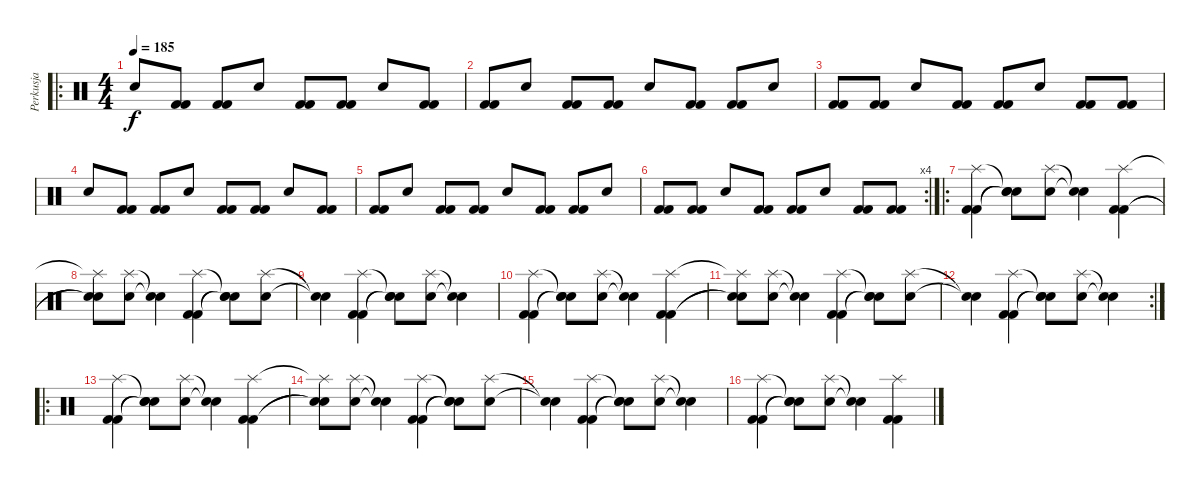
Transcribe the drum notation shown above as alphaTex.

\track ("Perkusja" "Perkusja") {instrument percussion}
\staff {score}
\articulation defaults
\ro
\ts (4 4)
\tempo 185
\clef neutral
\ks c "Snare (hit) 2".8{dy f}
("Kick (hit) 2" "Kick (hit) 2").8 ("Kick (hit) 2" "Kick (hit) 2").8 "Snare (hit) 2".8 ("Kick (hit) 2" "Kick (hit) 2").8 ("Kick (hit) 2" "Kick (hit) 2").8 "Snare (hit) 2".8 ("Kick (hit) 2" "Kick (hit) 2").8 |
("Kick (hit) 2" "Kick (hit) 2").8 "Snare (hit) 2".8 ("Kick (hit) 2" "Kick (hit) 2").8 ("Kick (hit) 2" "Kick (hit) 2").8 "Snare (hit) 2".8 ("Kick (hit) 2" "Kick (hit) 2").8 ("Kick (hit) 2" "Kick (hit) 2").8 "Snare (hit) 2".8 |
("Kick (hit) 2" "Kick (hit) 2").8 ("Kick (hit) 2" "Kick (hit) 2").8 "Snare (hit) 2".8 ("Kick (hit) 2" "Kick (hit) 2").8 ("Kick (hit) 2" "Kick (hit) 2").8 "Snare (hit) 2".8 ("Kick (hit) 2" "Kick (hit) 2").8 ("Kick (hit) 2" "Kick (hit) 2").8 |
"Snare (hit) 2".8 ("Kick (hit) 2" "Kick (hit) 2").8 ("Kick (hit) 2" "Kick (hit) 2").8 "Snare (hit) 2".8 ("Kick (hit) 2" "Kick (hit) 2").8 ("Kick (hit) 2" "Kick (hit) 2").8 "Snare (hit) 2".8 ("Kick (hit) 2" "Kick (hit) 2").8 |
("Kick (hit) 2" "Kick (hit) 2").8 "Snare (hit) 2".8 ("Kick (hit) 2" "Kick (hit) 2").8 ("Kick (hit) 2" "Kick (hit) 2").8 "Snare (hit) 2".8 ("Kick (hit) 2" "Kick (hit) 2").8 ("Kick (hit) 2" "Kick (hit) 2").8 "Snare (hit) 2".8 |
\rc 4
("Kick (hit) 2" "Kick (hit) 2").8 ("Kick (hit) 2" "Kick (hit) 2").8 "Snare (hit) 2".8 ("Kick (hit) 2" "Kick (hit) 2").8 ("Kick (hit) 2" "Kick (hit) 2").8 "Snare (hit) 2".8 ("Kick (hit) 2" "Kick (hit) 2").8 ("Kick (hit) 2" "Kick (hit) 2").8 |
\ro
("Splash (hit)" "Kick (hit) 2" "Kick (hit) 2").4 ("Snare (hit)"{t} "Snare (hit)"{t} "Snare (hit)"{t}).8 ("Splash (hit)" "Snare (hit) 2").8 ("Snare (hit)"{t} "Snare (hit)"{t}).4 ("Splash (hit)" "Kick (hit) 2" "Kick (hit) 2").4 |
("Splash (hit)"{t} "Snare (hit)"{t} "Snare (hit)"{t}).8 ("Splash (hit)" "Snare (hit) 2").8 ("Snare (hit)"{t} "Snare (hit)"{t}).4 ("Splash (hit)" "Kick (hit) 2" "Kick (hit) 2").4 ("Snare (hit)"{t} "Snare (hit)"{t} "Snare (hit)"{t}).8 ("Splash (hit)" "Snare (hit) 2").8 |
("Snare (hit)"{t} "Snare (hit)"{t}).4 ("Splash (hit)" "Kick (hit) 2" "Kick (hit) 2").4 ("Snare (hit)"{t} "Snare (hit)"{t} "Snare (hit)"{t}).8 ("Splash (hit)" "Snare (hit) 2").8 ("Snare (hit)"{t} "Snare (hit)"{t}).4 |
("Splash (hit)" "Kick (hit) 2" "Kick (hit) 2").4 ("Snare (hit)"{t} "Snare (hit)"{t} "Snare (hit)"{t}).8 ("Splash (hit)" "Snare (hit) 2").8 ("Snare (hit)"{t} "Snare (hit)"{t}).4 ("Splash (hit)" "Kick (hit) 2" "Kick (hit) 2").4 |
("Splash (hit)"{t} "Snare (hit)"{t} "Snare (hit)"{t}).8 ("Splash (hit)" "Snare (hit) 2").8 ("Snare (hit)"{t} "Snare (hit)"{t}).4 ("Splash (hit)" "Kick (hit) 2" "Kick (hit) 2").4 ("Snare (hit)"{t} "Snare (hit)"{t} "Snare (hit)"{t}).8 ("Splash (hit)" "Snare (hit) 2").8 |
\rc 2
("Snare (hit)"{t} "Snare (hit)"{t}).4 ("Splash (hit)" "Kick (hit) 2" "Kick (hit) 2").4 ("Snare (hit)"{t} "Snare (hit)"{t} "Snare (hit)"{t}).8 ("Splash (hit)" "Snare (hit) 2").8 ("Snare (hit)"{t} "Snare (hit)"{t}).4 |
\ro
("Splash (hit)" "Kick (hit) 2" "Kick (hit) 2").4 ("Snare (hit)"{t} "Snare (hit)"{t} "Snare (hit)"{t}).8 ("Splash (hit)" "Snare (hit) 2").8 ("Snare (hit)"{t} "Snare (hit)"{t}).4 ("Splash (hit)" "Kick (hit) 2" "Kick (hit) 2").4 |
("Splash (hit)"{t} "Snare (hit)"{t} "Snare (hit)"{t}).8 ("Splash (hit)" "Snare (hit) 2").8 ("Snare (hit)"{t} "Snare (hit)"{t}).4 ("Splash (hit)" "Kick (hit) 2" "Kick (hit) 2").4 ("Snare (hit)"{t} "Snare (hit)"{t} "Snare (hit)"{t}).8 ("Splash (hit)" "Snare (hit) 2").8 |
("Snare (hit)"{t} "Snare (hit)"{t}).4 ("Splash (hit)" "Kick (hit) 2" "Kick (hit) 2").4 ("Snare (hit)"{t} "Snare (hit)"{t} "Snare (hit)"{t}).8 ("Splash (hit)" "Snare (hit) 2").8 ("Snare (hit)"{t} "Snare (hit)"{t}).4 |
("Splash (hit)" "Kick (hit) 2" "Kick (hit) 2").4 ("Snare (hit)"{t} "Snare (hit)"{t} "Snare (hit)"{t}).8 ("Splash (hit)" "Snare (hit) 2").8 ("Snare (hit)"{t} "Snare (hit)"{t}).4 ("Splash (hit)" "Kick (hit) 2" "Kick (hit) 2").4
